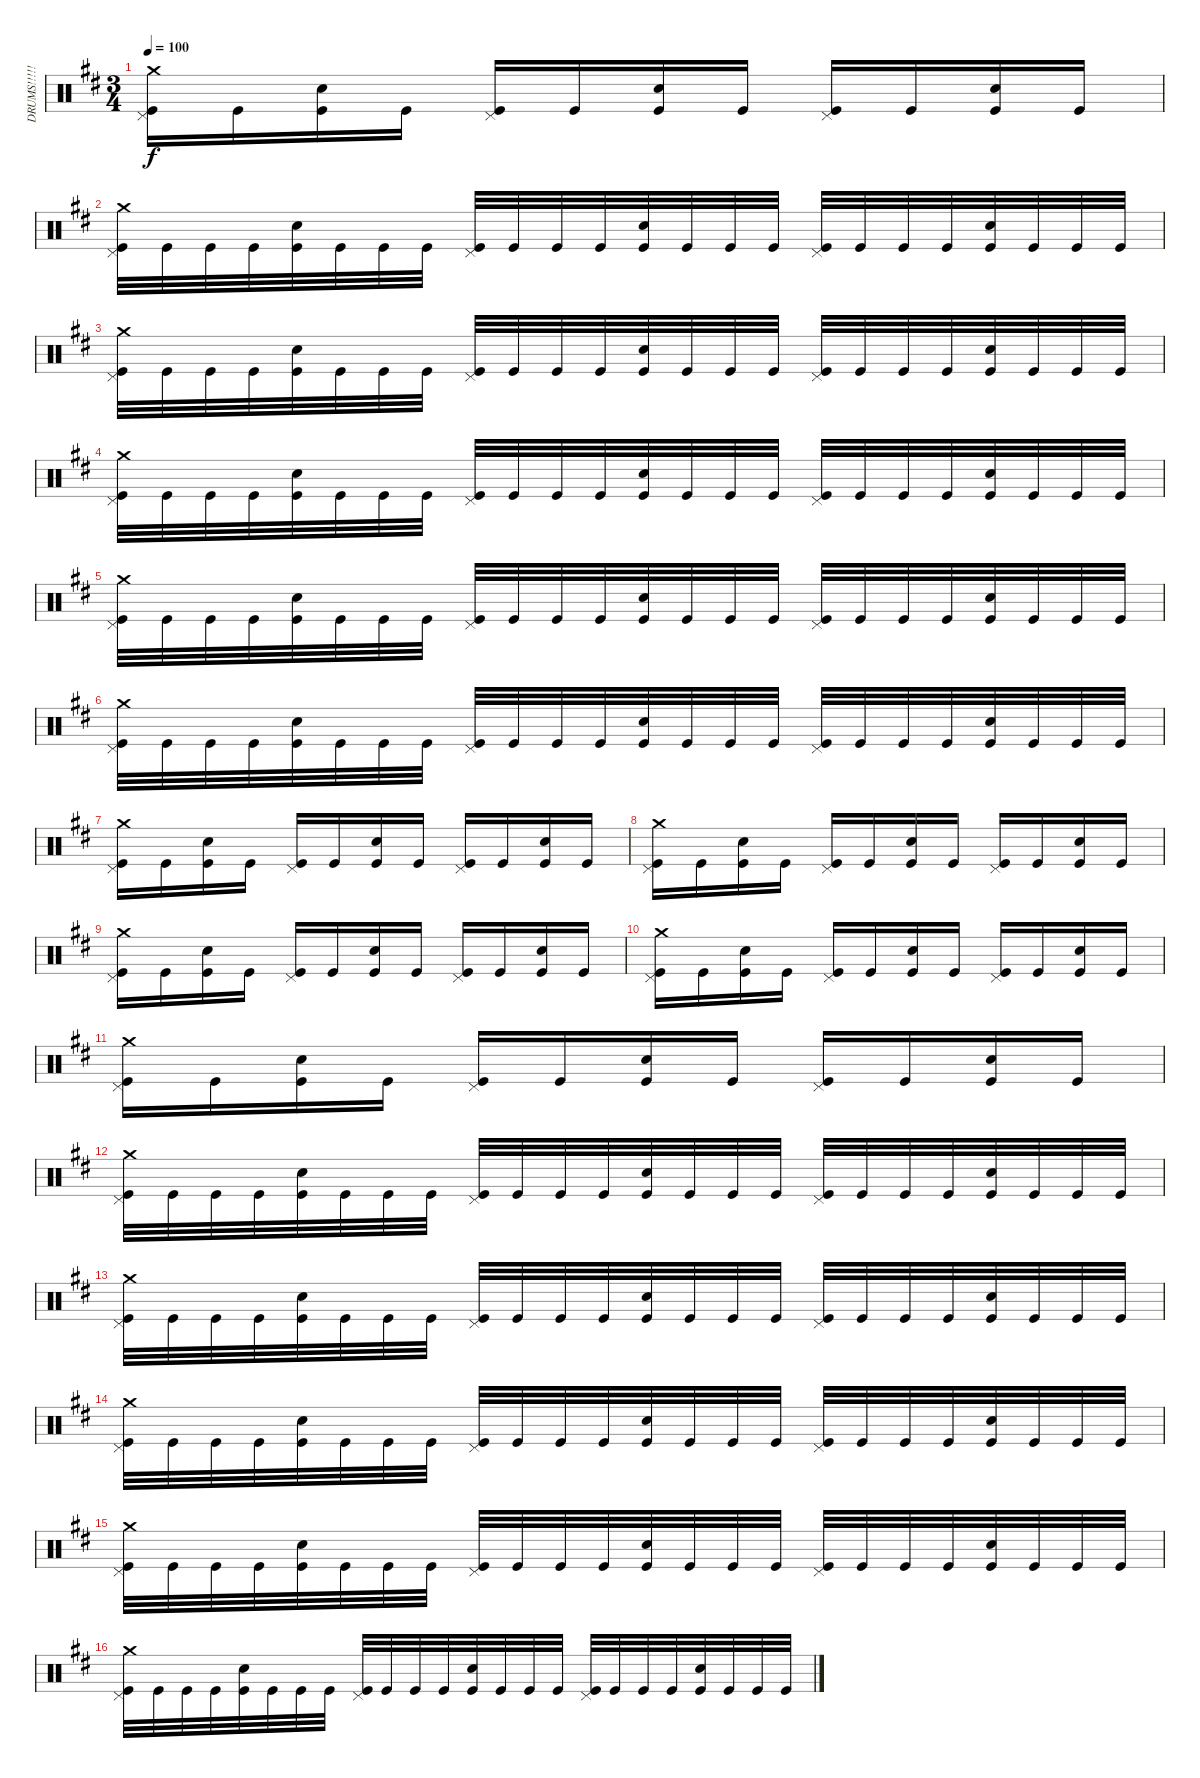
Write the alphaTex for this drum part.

\track ("DRUMS!!!!!" "DRUMS!!!!!") {instrument percussion}
\staff {score}
\articulation defaults
\ts (3 4)
\tempo 100
\clef neutral
\ks d
("Kick (hit)" "Pedal Hi-Hat (hit)" "Crash medium (hit)").16{dy f} "Kick (hit)".16 ("Kick (hit)" "Snare (hit) 2").16 "Kick (hit)".16 ("Kick (hit)" "Pedal Hi-Hat (hit)").16 "Kick (hit)".16 ("Kick (hit)" "Snare (hit) 2").16 "Kick (hit)".16 ("Kick (hit)" "Pedal Hi-Hat (hit)").16 "Kick (hit)".16 ("Kick (hit)" "Snare (hit) 2").16 "Kick (hit)".16 |
("Kick (hit)" "Pedal Hi-Hat (hit)" "Crash medium (hit)").32 "Kick (hit)".32 "Kick (hit)".32 "Kick (hit)".32 ("Kick (hit)" "Snare (hit) 2").32 "Kick (hit)".32 "Kick (hit)".32 "Kick (hit)".32 ("Kick (hit)" "Pedal Hi-Hat (hit)").32 "Kick (hit)".32 "Kick (hit)".32 "Kick (hit)".32 ("Kick (hit)" "Snare (hit) 2").32 "Kick (hit)".32 "Kick (hit)".32 "Kick (hit)".32 ("Kick (hit)" "Pedal Hi-Hat (hit)").32 "Kick (hit)".32 "Kick (hit)".32 "Kick (hit)".32 ("Kick (hit)" "Snare (hit) 2").32 "Kick (hit)".32 "Kick (hit)".32 "Kick (hit)".32 |
("Kick (hit)" "Pedal Hi-Hat (hit)" "Crash medium (hit)").32 "Kick (hit)".32 "Kick (hit)".32 "Kick (hit)".32 ("Kick (hit)" "Snare (hit) 2").32 "Kick (hit)".32 "Kick (hit)".32 "Kick (hit)".32 ("Kick (hit)" "Pedal Hi-Hat (hit)").32 "Kick (hit)".32 "Kick (hit)".32 "Kick (hit)".32 ("Kick (hit)" "Snare (hit) 2").32 "Kick (hit)".32 "Kick (hit)".32 "Kick (hit)".32 ("Kick (hit)" "Pedal Hi-Hat (hit)").32 "Kick (hit)".32 "Kick (hit)".32 "Kick (hit)".32 ("Kick (hit)" "Snare (hit) 2").32 "Kick (hit)".32 "Kick (hit)".32 "Kick (hit)".32 |
("Kick (hit)" "Pedal Hi-Hat (hit)" "Crash medium (hit)").32 "Kick (hit)".32 "Kick (hit)".32 "Kick (hit)".32 ("Kick (hit)" "Snare (hit) 2").32 "Kick (hit)".32 "Kick (hit)".32 "Kick (hit)".32 ("Kick (hit)" "Pedal Hi-Hat (hit)").32 "Kick (hit)".32 "Kick (hit)".32 "Kick (hit)".32 ("Kick (hit)" "Snare (hit) 2").32 "Kick (hit)".32 "Kick (hit)".32 "Kick (hit)".32 ("Kick (hit)" "Pedal Hi-Hat (hit)").32 "Kick (hit)".32 "Kick (hit)".32 "Kick (hit)".32 ("Kick (hit)" "Snare (hit) 2").32 "Kick (hit)".32 "Kick (hit)".32 "Kick (hit)".32 |
("Kick (hit)" "Pedal Hi-Hat (hit)" "Crash medium (hit)").32 "Kick (hit)".32 "Kick (hit)".32 "Kick (hit)".32 ("Kick (hit)" "Snare (hit) 2").32 "Kick (hit)".32 "Kick (hit)".32 "Kick (hit)".32 ("Kick (hit)" "Pedal Hi-Hat (hit)").32 "Kick (hit)".32 "Kick (hit)".32 "Kick (hit)".32 ("Kick (hit)" "Snare (hit) 2").32 "Kick (hit)".32 "Kick (hit)".32 "Kick (hit)".32 ("Kick (hit)" "Pedal Hi-Hat (hit)").32 "Kick (hit)".32 "Kick (hit)".32 "Kick (hit)".32 ("Kick (hit)" "Snare (hit) 2").32 "Kick (hit)".32 "Kick (hit)".32 "Kick (hit)".32 |
("Kick (hit)" "Pedal Hi-Hat (hit)" "Crash medium (hit)").32 "Kick (hit)".32 "Kick (hit)".32 "Kick (hit)".32 ("Kick (hit)" "Snare (hit) 2").32 "Kick (hit)".32 "Kick (hit)".32 "Kick (hit)".32 ("Kick (hit)" "Pedal Hi-Hat (hit)").32 "Kick (hit)".32 "Kick (hit)".32 "Kick (hit)".32 ("Kick (hit)" "Snare (hit) 2").32 "Kick (hit)".32 "Kick (hit)".32 "Kick (hit)".32 ("Kick (hit)" "Pedal Hi-Hat (hit)").32 "Kick (hit)".32 "Kick (hit)".32 "Kick (hit)".32 ("Kick (hit)" "Snare (hit) 2").32 "Kick (hit)".32 "Kick (hit)".32 "Kick (hit)".32 |
("Kick (hit)" "Pedal Hi-Hat (hit)" "Crash medium (hit)").16 "Kick (hit)".16 ("Kick (hit)" "Snare (hit) 2").16 "Kick (hit)".16 ("Kick (hit)" "Pedal Hi-Hat (hit)").16 "Kick (hit)".16 ("Kick (hit)" "Snare (hit) 2").16 "Kick (hit)".16 ("Kick (hit)" "Pedal Hi-Hat (hit)").16 "Kick (hit)".16 ("Kick (hit)" "Snare (hit) 2").16 "Kick (hit)".16 |
("Kick (hit)" "Pedal Hi-Hat (hit)" "Crash medium (hit)").16 "Kick (hit)".16 ("Kick (hit)" "Snare (hit) 2").16 "Kick (hit)".16 ("Kick (hit)" "Pedal Hi-Hat (hit)").16 "Kick (hit)".16 ("Kick (hit)" "Snare (hit) 2").16 "Kick (hit)".16 ("Kick (hit)" "Pedal Hi-Hat (hit)").16 "Kick (hit)".16 ("Kick (hit)" "Snare (hit) 2").16 "Kick (hit)".16 |
("Kick (hit)" "Pedal Hi-Hat (hit)" "Crash medium (hit)").16 "Kick (hit)".16 ("Kick (hit)" "Snare (hit) 2").16 "Kick (hit)".16 ("Kick (hit)" "Pedal Hi-Hat (hit)").16 "Kick (hit)".16 ("Kick (hit)" "Snare (hit) 2").16 "Kick (hit)".16 ("Kick (hit)" "Pedal Hi-Hat (hit)").16 "Kick (hit)".16 ("Kick (hit)" "Snare (hit) 2").16 "Kick (hit)".16 |
("Kick (hit)" "Pedal Hi-Hat (hit)" "Crash medium (hit)").16 "Kick (hit)".16 ("Kick (hit)" "Snare (hit) 2").16 "Kick (hit)".16 ("Kick (hit)" "Pedal Hi-Hat (hit)").16 "Kick (hit)".16 ("Kick (hit)" "Snare (hit) 2").16 "Kick (hit)".16 ("Kick (hit)" "Pedal Hi-Hat (hit)").16 "Kick (hit)".16 ("Kick (hit)" "Snare (hit) 2").16 "Kick (hit)".16 |
("Kick (hit)" "Pedal Hi-Hat (hit)" "Crash medium (hit)").16 "Kick (hit)".16 ("Kick (hit)" "Snare (hit) 2").16 "Kick (hit)".16 ("Kick (hit)" "Pedal Hi-Hat (hit)").16 "Kick (hit)".16 ("Kick (hit)" "Snare (hit) 2").16 "Kick (hit)".16 ("Kick (hit)" "Pedal Hi-Hat (hit)").16 "Kick (hit)".16 ("Kick (hit)" "Snare (hit) 2").16 "Kick (hit)".16 |
("Kick (hit)" "Pedal Hi-Hat (hit)" "Crash medium (hit)").32 "Kick (hit)".32 "Kick (hit)".32 "Kick (hit)".32 ("Kick (hit)" "Snare (hit) 2").32 "Kick (hit)".32 "Kick (hit)".32 "Kick (hit)".32 ("Kick (hit)" "Pedal Hi-Hat (hit)").32 "Kick (hit)".32 "Kick (hit)".32 "Kick (hit)".32 ("Kick (hit)" "Snare (hit) 2").32 "Kick (hit)".32 "Kick (hit)".32 "Kick (hit)".32 ("Kick (hit)" "Pedal Hi-Hat (hit)").32 "Kick (hit)".32 "Kick (hit)".32 "Kick (hit)".32 ("Kick (hit)" "Snare (hit) 2").32 "Kick (hit)".32 "Kick (hit)".32 "Kick (hit)".32 |
("Kick (hit)" "Pedal Hi-Hat (hit)" "Crash medium (hit)").32 "Kick (hit)".32 "Kick (hit)".32 "Kick (hit)".32 ("Kick (hit)" "Snare (hit) 2").32 "Kick (hit)".32 "Kick (hit)".32 "Kick (hit)".32 ("Kick (hit)" "Pedal Hi-Hat (hit)").32 "Kick (hit)".32 "Kick (hit)".32 "Kick (hit)".32 ("Kick (hit)" "Snare (hit) 2").32 "Kick (hit)".32 "Kick (hit)".32 "Kick (hit)".32 ("Kick (hit)" "Pedal Hi-Hat (hit)").32 "Kick (hit)".32 "Kick (hit)".32 "Kick (hit)".32 ("Kick (hit)" "Snare (hit) 2").32 "Kick (hit)".32 "Kick (hit)".32 "Kick (hit)".32 |
("Kick (hit)" "Pedal Hi-Hat (hit)" "Crash medium (hit)").32 "Kick (hit)".32 "Kick (hit)".32 "Kick (hit)".32 ("Kick (hit)" "Snare (hit) 2").32 "Kick (hit)".32 "Kick (hit)".32 "Kick (hit)".32 ("Kick (hit)" "Pedal Hi-Hat (hit)").32 "Kick (hit)".32 "Kick (hit)".32 "Kick (hit)".32 ("Kick (hit)" "Snare (hit) 2").32 "Kick (hit)".32 "Kick (hit)".32 "Kick (hit)".32 ("Kick (hit)" "Pedal Hi-Hat (hit)").32 "Kick (hit)".32 "Kick (hit)".32 "Kick (hit)".32 ("Kick (hit)" "Snare (hit) 2").32 "Kick (hit)".32 "Kick (hit)".32 "Kick (hit)".32 |
("Kick (hit)" "Pedal Hi-Hat (hit)" "Crash medium (hit)").32 "Kick (hit)".32 "Kick (hit)".32 "Kick (hit)".32 ("Kick (hit)" "Snare (hit) 2").32 "Kick (hit)".32 "Kick (hit)".32 "Kick (hit)".32 ("Kick (hit)" "Pedal Hi-Hat (hit)").32 "Kick (hit)".32 "Kick (hit)".32 "Kick (hit)".32 ("Kick (hit)" "Snare (hit) 2").32 "Kick (hit)".32 "Kick (hit)".32 "Kick (hit)".32 ("Kick (hit)" "Pedal Hi-Hat (hit)").32 "Kick (hit)".32 "Kick (hit)".32 "Kick (hit)".32 ("Kick (hit)" "Snare (hit) 2").32 "Kick (hit)".32 "Kick (hit)".32 "Kick (hit)".32 |
("Kick (hit)" "Pedal Hi-Hat (hit)" "Crash medium (hit)").32 "Kick (hit)".32 "Kick (hit)".32 "Kick (hit)".32 ("Kick (hit)" "Snare (hit) 2").32 "Kick (hit)".32 "Kick (hit)".32 "Kick (hit)".32 ("Kick (hit)" "Pedal Hi-Hat (hit)").32 "Kick (hit)".32 "Kick (hit)".32 "Kick (hit)".32 ("Kick (hit)" "Snare (hit) 2").32 "Kick (hit)".32 "Kick (hit)".32 "Kick (hit)".32 ("Kick (hit)" "Pedal Hi-Hat (hit)").32 "Kick (hit)".32 "Kick (hit)".32 "Kick (hit)".32 ("Kick (hit)" "Snare (hit) 2").32 "Kick (hit)".32 "Kick (hit)".32 "Kick (hit)".32
